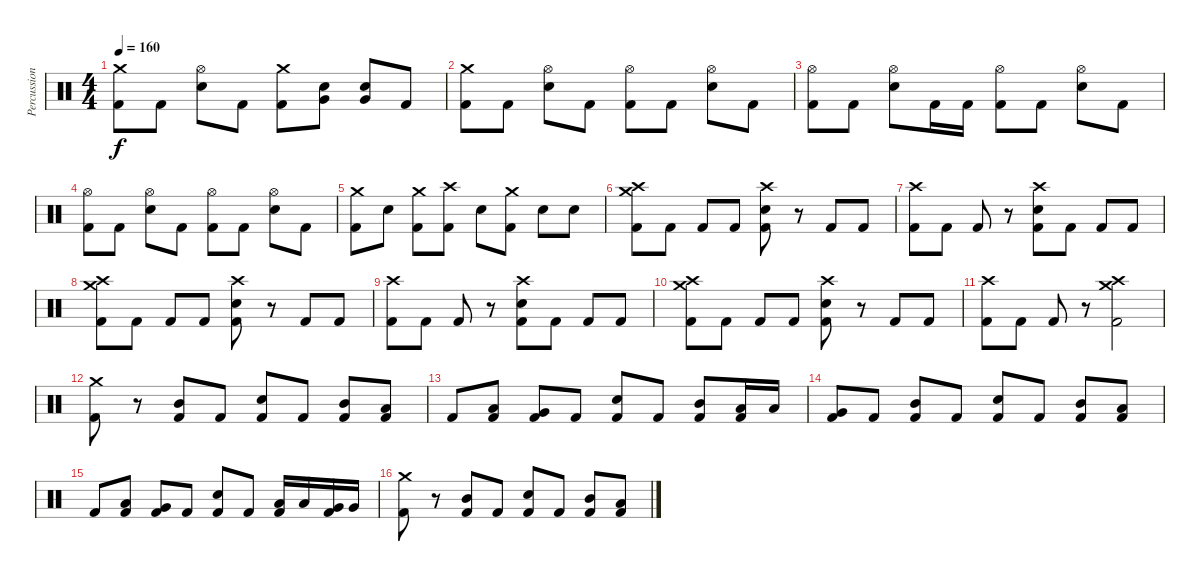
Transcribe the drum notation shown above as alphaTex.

\track ("Percussion" "Percussion") {instrument percussion}
\staff {score}
\articulation defaults
\ts (4 4)
\tempo 160
\clef neutral
\ks c
("Crash medium (hit)" "Kick (hit) 2").8{dy f} "Kick (hit) 2".8 ("Hi-Hat (open)" "Electric Snare (hit)").8 "Kick (hit) 2".8 ("Crash medium (hit)" "Kick (hit) 2").8 ("Electric Snare (hit)" "Very Low Tom (hit)").8 ("Electric Snare (hit)" "Very Low Tom (hit)").8 "Kick (hit) 2".8 |
("Crash medium (hit)" "Kick (hit) 2").8 "Kick (hit) 2".8 ("Hi-Hat (open)" "Electric Snare (hit)").8 "Kick (hit) 2".8 ("Hi-Hat (open)" "Kick (hit) 2").8 "Kick (hit) 2".8 ("Hi-Hat (open)" "Electric Snare (hit)").8 "Kick (hit) 2".8 |
("Hi-Hat (open)" "Kick (hit) 2").8 "Kick (hit) 2".8 ("Hi-Hat (open)" "Electric Snare (hit)").8 "Kick (hit) 2".16 "Kick (hit) 2".16 ("Hi-Hat (open)" "Kick (hit) 2").8 "Kick (hit) 2".8 ("Hi-Hat (open)" "Electric Snare (hit)").8 "Kick (hit) 2".8 |
("Hi-Hat (open)" "Kick (hit) 2").8 "Kick (hit) 2".8 ("Hi-Hat (open)" "Electric Snare (hit)").8 "Kick (hit) 2".8 ("Hi-Hat (open)" "Kick (hit) 2").8 "Kick (hit) 2".8 ("Hi-Hat (open)" "Electric Snare (hit)").8 "Kick (hit) 2".8 |
("Crash medium (hit)" "Kick (hit) 2").8 "Electric Snare (hit)".8 ("Crash medium (hit)" "Kick (hit) 2").8 ("Crash high (hit)" "Kick (hit) 2").8 "Electric Snare (hit)".8 ("Crash medium (hit)" "Kick (hit) 2").8 "Electric Snare (hit)".8 "Electric Snare (hit)".8 |
("Crash medium (hit)" "Crash high (hit)" "Kick (hit) 2").8 "Kick (hit) 2".8 "Kick (hit) 2".8 "Kick (hit) 2".8 ("Crash high (hit)" "Electric Snare (hit)" "Kick (hit) 2").8 r.8 "Kick (hit) 2".8 "Kick (hit) 2".8 |
("Crash high (hit)" "Kick (hit) 2").8 "Kick (hit) 2".8 "Kick (hit) 2".8 r.8 ("Crash high (hit)" "Electric Snare (hit)" "Kick (hit) 2").8 "Kick (hit) 2".8 "Kick (hit) 2".8 "Kick (hit) 2".8 |
("Crash medium (hit)" "Crash high (hit)" "Kick (hit) 2").8 "Kick (hit) 2".8 "Kick (hit) 2".8 "Kick (hit) 2".8 ("Crash high (hit)" "Electric Snare (hit)" "Kick (hit) 2").8 r.8 "Kick (hit) 2".8 "Kick (hit) 2".8 |
("Crash high (hit)" "Kick (hit) 2").8 "Kick (hit) 2".8 "Kick (hit) 2".8 r.8 ("Crash high (hit)" "Electric Snare (hit)" "Kick (hit) 2").8 "Kick (hit) 2".8 "Kick (hit) 2".8 "Kick (hit) 2".8 |
("Crash medium (hit)" "Crash high (hit)" "Kick (hit) 2").8 "Kick (hit) 2".8 "Kick (hit) 2".8 "Kick (hit) 2".8 ("Crash high (hit)" "Electric Snare (hit)" "Kick (hit) 2").8 r.8 "Kick (hit) 2".8 "Kick (hit) 2".8 |
("Crash high (hit)" "Kick (hit) 2").8 "Kick (hit) 2".8 "Kick (hit) 2".8 r.8 ("Crash medium (hit)" "Crash high (hit)" "Kick (hit) 2").2 |
("Crash medium (hit)" "Kick (hit) 2").8 r.8 ("Mid Tom (hit)" "Kick (hit) 2").8 "Kick (hit) 2".8 ("Electric Snare (hit)" "Kick (hit) 2").8 "Kick (hit) 2".8 ("Mid Tom (hit)" "Kick (hit) 2").8 ("Low Tom (hit)" "Kick (hit) 2").8 |
"Kick (hit) 2".8 ("Low Tom (hit)" "Kick (hit) 2").8 ("Very Low Tom (hit)" "Kick (hit) 2").8 "Kick (hit) 2".8 ("Electric Snare (hit)" "Kick (hit) 2").8 "Kick (hit) 2".8 ("Mid Tom (hit)" "Kick (hit) 2").8 ("Low Tom (hit)" "Kick (hit) 2").16 "Low Tom (hit)".16 |
("Very Low Tom (hit)" "Kick (hit) 2").8 "Kick (hit) 2".8 ("Mid Tom (hit)" "Kick (hit) 2").8 "Kick (hit) 2".8 ("Electric Snare (hit)" "Kick (hit) 2").8 "Kick (hit) 2".8 ("Mid Tom (hit)" "Kick (hit) 2").8 ("Low Tom (hit)" "Kick (hit) 2").8 |
"Kick (hit) 2".8 ("Low Tom (hit)" "Kick (hit) 2").8 ("Very Low Tom (hit)" "Kick (hit) 2").8 "Kick (hit) 2".8 ("Electric Snare (hit)" "Kick (hit) 2").8 "Kick (hit) 2".8 ("Low Tom (hit)" "Kick (hit) 2").16 "Low Tom (hit)".16 ("Very Low Tom (hit)" "Kick (hit) 2").16 "Very Low Tom (hit)".16 |
("Crash medium (hit)" "Kick (hit) 2").8 r.8 ("Mid Tom (hit)" "Kick (hit) 2").8 "Kick (hit) 2".8 ("Electric Snare (hit)" "Kick (hit) 2").8 "Kick (hit) 2".8 ("Mid Tom (hit)" "Kick (hit) 2").8 ("Low Tom (hit)" "Kick (hit) 2").8
